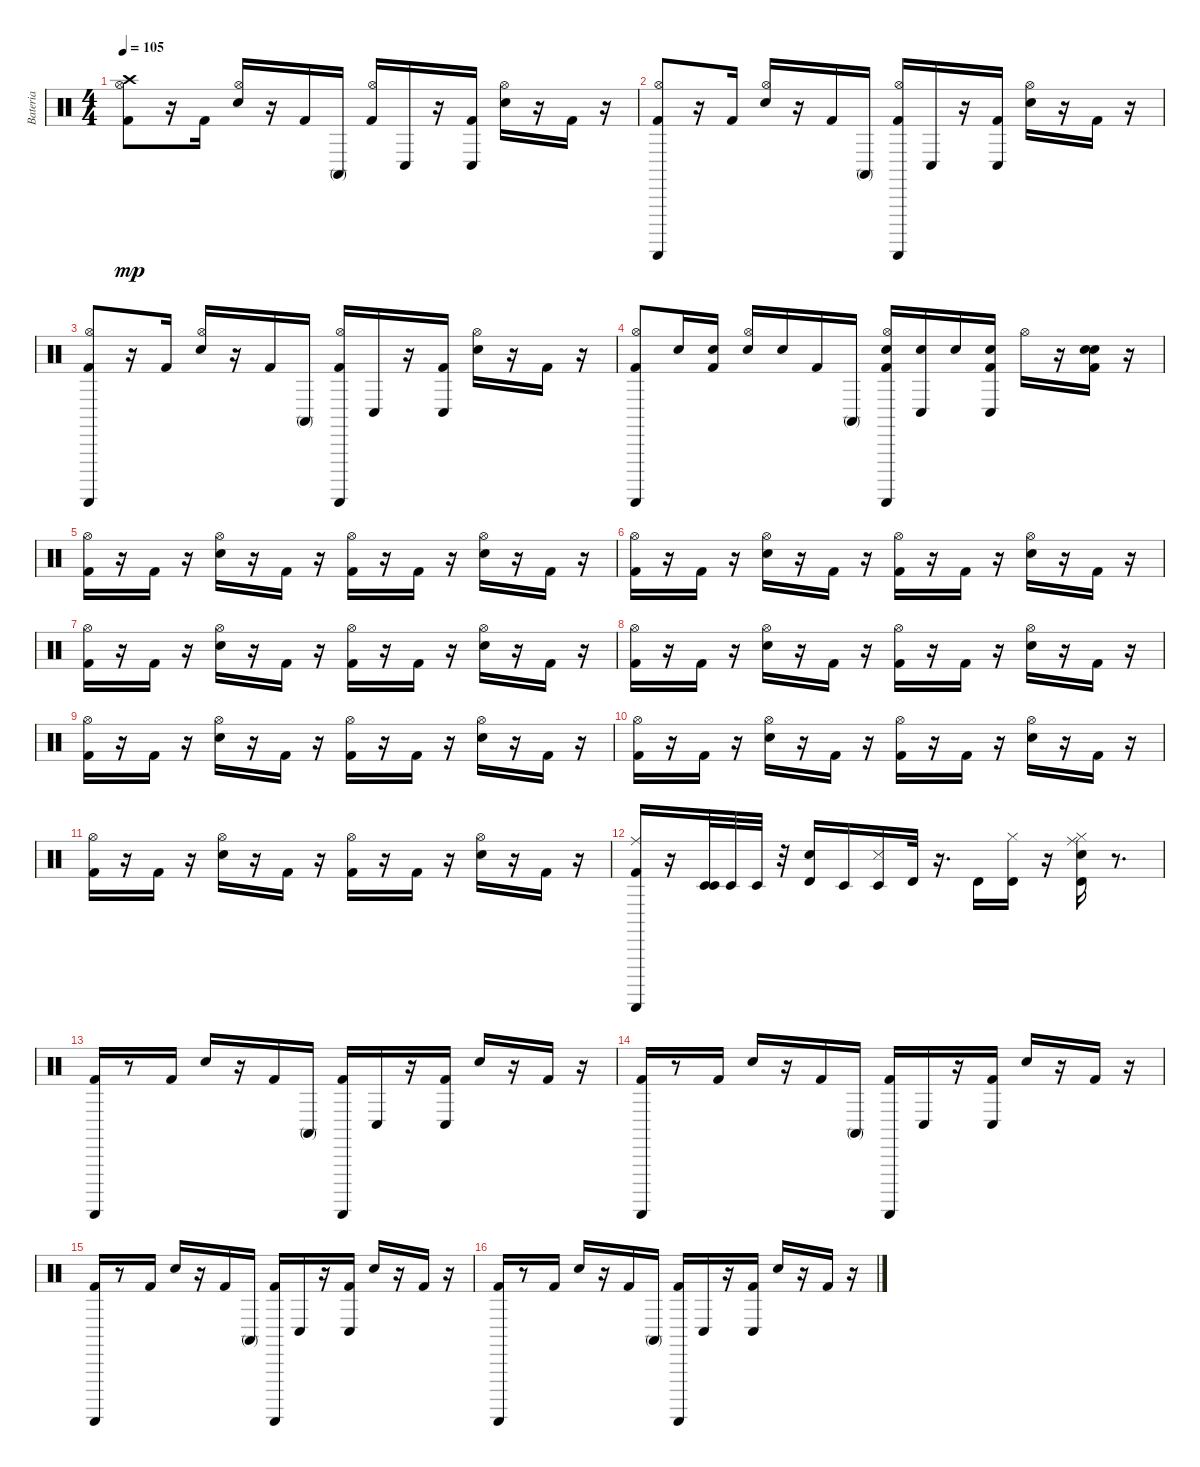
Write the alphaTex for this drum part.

\track ("Bateria" "Bateria") {instrument percussion}
\staff {score}
\articulation defaults
\ts (4 4)
\tempo 105
\clef neutral
\ks c
("Kick (hit) 2" "Crash high (hit)" "Hi-Hat (open)").8{dy mp} r.16 "Kick (hit) 2".16 ("Electric Snare (hit)" "Hi-Hat (open)").16 r.16 "Kick (hit) 2".16 "Conga high (mute)".16 ("Kick (hit) 2" "Hi-Hat (open)").16 "Conga low (hit)".16 r.16 ("Conga low (hit)" "Kick (hit) 2").16 ("Electric Snare (hit)" "Hi-Hat (open)").16 r.16 "Kick (hit) 2".16 r.16 |
("Kick (hit) 2" "Guiro (scrap-return)" "Hi-Hat (open)").8 r.16 "Kick (hit) 2".16 ("Electric Snare (hit)" "Hi-Hat (open)").16 r.16 "Kick (hit) 2".16 "Conga high (mute)".16 ("Kick (hit) 2" "Guiro (scrap-return)" "Hi-Hat (open)").16 "Conga low (hit)".16 r.16 ("Conga low (hit)" "Kick (hit) 2").16 ("Electric Snare (hit)" "Hi-Hat (open)").16 r.16 "Kick (hit) 2".16 r.16 |
("Kick (hit) 2" "Guiro (scrap-return)" "Hi-Hat (open)").8 r.16 "Kick (hit) 2".16 ("Electric Snare (hit)" "Hi-Hat (open)").16 r.16 "Kick (hit) 2".16 "Conga high (mute)".16 ("Kick (hit) 2" "Guiro (scrap-return)" "Hi-Hat (open)").16 "Conga low (hit)".16 r.16 ("Conga low (hit)" "Kick (hit) 2").16 ("Electric Snare (hit)" "Hi-Hat (open)").16 r.16 "Kick (hit) 2".16 r.16 |
("Kick (hit) 2" "Guiro (scrap-return)" "Hi-Hat (open)").8 "Electric Snare (hit)".16 ("Kick (hit) 2" "Electric Snare (hit)").16 ("Electric Snare (hit)" "Hi-Hat (open)").16 "Electric Snare (hit)".16 "Kick (hit) 2".16 "Conga high (mute)".16 ("Kick (hit) 2" "Guiro (scrap-return)" "Hi-Hat (open)" "Electric Snare (hit)").16 ("Conga low (hit)" "Electric Snare (hit)").16 "Electric Snare (hit)".16 ("Conga low (hit)" "Kick (hit) 2" "Electric Snare (hit)").16 "Hi-Hat (open)".16 r.16 ("Electric Snare (hit)" "Kick (hit) 2" "Electric Snare (hit)").16 r.16 |
("Kick (hit) 2" "Hi-Hat (open)").16 r.16 "Kick (hit) 2".16 r.16 ("Electric Snare (hit)" "Hi-Hat (open)").16 r.16 "Kick (hit) 2".16 r.16 ("Kick (hit) 2" "Hi-Hat (open)").16 r.16 "Kick (hit) 2".16 r.16 ("Electric Snare (hit)" "Hi-Hat (open)").16 r.16 "Kick (hit) 2".16 r.16 |
("Kick (hit) 2" "Hi-Hat (open)").16 r.16 "Kick (hit) 2".16 r.16 ("Electric Snare (hit)" "Hi-Hat (open)").16 r.16 "Kick (hit) 2".16 r.16 ("Kick (hit) 2" "Hi-Hat (open)").16 r.16 "Kick (hit) 2".16 r.16 ("Electric Snare (hit)" "Hi-Hat (open)").16 r.16 "Kick (hit) 2".16 r.16 |
("Kick (hit) 2" "Hi-Hat (open)").16 r.16 "Kick (hit) 2".16 r.16 ("Electric Snare (hit)" "Hi-Hat (open)").16 r.16 "Kick (hit) 2".16 r.16 ("Kick (hit) 2" "Hi-Hat (open)").16 r.16 "Kick (hit) 2".16 r.16 ("Electric Snare (hit)" "Hi-Hat (open)").16 r.16 "Kick (hit) 2".16 r.16 |
("Kick (hit) 2" "Hi-Hat (open)").16 r.16 "Kick (hit) 2".16 r.16 ("Electric Snare (hit)" "Hi-Hat (open)").16 r.16 "Kick (hit) 2".16 r.16 ("Kick (hit) 2" "Hi-Hat (open)").16 r.16 "Kick (hit) 2".16 r.16 ("Electric Snare (hit)" "Hi-Hat (open)").16 r.16 "Kick (hit) 2".16 r.16 |
("Kick (hit) 2" "Hi-Hat (open)").16 r.16 "Kick (hit) 2".16 r.16 ("Electric Snare (hit)" "Hi-Hat (open)").16 r.16 "Kick (hit) 2".16 r.16 ("Kick (hit) 2" "Hi-Hat (open)").16 r.16 "Kick (hit) 2".16 r.16 ("Electric Snare (hit)" "Hi-Hat (open)").16 r.16 "Kick (hit) 2".16 r.16 |
("Kick (hit) 2" "Hi-Hat (open)").16 r.16 "Kick (hit) 2".16 r.16 ("Electric Snare (hit)" "Hi-Hat (open)").16 r.16 "Kick (hit) 2".16 r.16 ("Kick (hit) 2" "Hi-Hat (open)").16 r.16 "Kick (hit) 2".16 r.16 ("Electric Snare (hit)" "Hi-Hat (open)").16 r.16 "Kick (hit) 2".16 r.16 |
("Kick (hit) 2" "Hi-Hat (open)").16 r.16 "Kick (hit) 2".16 r.16 ("Electric Snare (hit)" "Hi-Hat (open)").16 r.16 "Kick (hit) 2".16 r.16 ("Kick (hit) 2" "Hi-Hat (open)").16 r.16 "Kick (hit) 2".16 r.16 ("Electric Snare (hit)" "Hi-Hat (open)").16 r.16 "Kick (hit) 2".16 r.16 |
("Kick (hit) 2" "Guiro (scrap-return)" "Ride (middle)").16 r.16 ("Timbale low (hit)" "Timbale low (hit)").32 "Timbale low (hit)".32 "Timbale low (hit)".32 r.32 ("Timbale high (hit)" "Electric Snare (hit)").16 "Timbale low (hit)".16 ("Timbale low (hit)" "Snare (side stick) 3").16 "Timbale high (hit)".32 r.16{d} "Timbale high (hit)".16 ("Timbale high (hit)" "Hi-Hat (closed)").16 r.16 ("Timbale high (hit)" "Ride (middle)" "Electric Snare (hit)" "Hi-Hat (closed)").16 r.8{d} |
("Kick (hit) 2" "Guiro (scrap-return)").16 r.8 "Kick (hit) 2".16 "Electric Snare (hit)".16 r.16 "Kick (hit) 2".16 "Conga high (mute)".16 ("Kick (hit) 2" "Guiro (scrap-return)").16 "Conga low (hit)".16 r.16 ("Conga low (hit)" "Kick (hit) 2").16 "Electric Snare (hit)".16 r.16 "Kick (hit) 2".16 r.16 |
("Kick (hit) 2" "Guiro (scrap-return)").16 r.8 "Kick (hit) 2".16 "Electric Snare (hit)".16 r.16 "Kick (hit) 2".16 "Conga high (mute)".16 ("Kick (hit) 2" "Guiro (scrap-return)").16 "Conga low (hit)".16 r.16 ("Conga low (hit)" "Kick (hit) 2").16 "Electric Snare (hit)".16 r.16 "Kick (hit) 2".16 r.16 |
("Kick (hit) 2" "Guiro (scrap-return)").16 r.8 "Kick (hit) 2".16 "Electric Snare (hit)".16 r.16 "Kick (hit) 2".16 "Conga high (mute)".16 ("Kick (hit) 2" "Guiro (scrap-return)").16 "Conga low (hit)".16 r.16 ("Conga low (hit)" "Kick (hit) 2").16 "Electric Snare (hit)".16 r.16 "Kick (hit) 2".16 r.16 |
("Kick (hit) 2" "Guiro (scrap-return)").16 r.8 "Kick (hit) 2".16 "Electric Snare (hit)".16 r.16 "Kick (hit) 2".16 "Conga high (mute)".16 ("Kick (hit) 2" "Guiro (scrap-return)").16 "Conga low (hit)".16 r.16 ("Conga low (hit)" "Kick (hit) 2").16 "Electric Snare (hit)".16 r.16 "Kick (hit) 2".16 r.16
